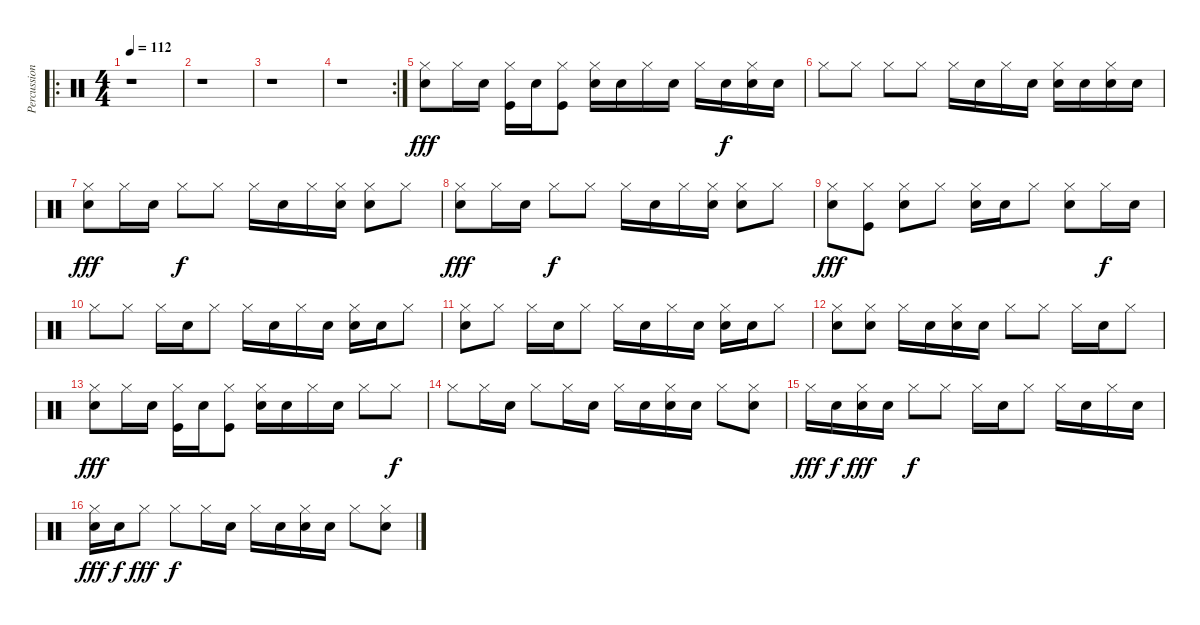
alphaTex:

\track ("Percussion 2" "Percussion") {instrument percussion}
\staff {score}
\articulation defaults
\ro
\ts (4 4)
\tempo 112
\clef neutral
\ks c
r.1{dy fff} |
r.1 |
r.1 |
\rc 2
r.1 |
("Hi-Hat (closed)" "Snare (hit) 2").8 "Hi-Hat (closed)".16 "Snare (hit) 2".16 ("Hi-Hat (closed)" "Kick (hit)").16 "Snare (hit) 2".16 ("Hi-Hat (closed)" "Kick (hit)").8 ("Hi-Hat (closed)" "Snare (hit) 2").16 "Snare (hit) 2".16 "Hi-Hat (closed)".16 "Snare (hit) 2".16 "Hi-Hat (closed)".16 "Snare (hit) 2".16{dy f} ("Hi-Hat (closed)" "Snare (hit) 2").16 "Snare (hit) 2".16 |
"Hi-Hat (closed)".8 "Hi-Hat (closed)".8 "Hi-Hat (closed)".8 "Hi-Hat (closed)".8 "Hi-Hat (closed)".16 "Snare (hit) 2".16 "Hi-Hat (closed)".16 "Snare (hit) 2".16 ("Hi-Hat (closed)" "Snare (hit) 2").16 "Snare (hit) 2".16 ("Hi-Hat (closed)" "Snare (hit) 2").16 "Snare (hit) 2".16 |
("Hi-Hat (closed)" "Snare (hit) 2").8{dy fff} "Hi-Hat (closed)".16 "Snare (hit) 2".16 "Hi-Hat (closed)".8{dy f} "Hi-Hat (closed)".8 "Hi-Hat (closed)".16 "Snare (hit) 2".16 "Hi-Hat (closed)".16 ("Hi-Hat (closed)" "Snare (hit) 2").16 ("Hi-Hat (closed)" "Snare (hit) 2").8 "Hi-Hat (closed)".8 |
("Hi-Hat (closed)" "Snare (hit) 2").8{dy fff} "Hi-Hat (closed)".16 "Snare (hit) 2".16 "Hi-Hat (closed)".8{dy f} "Hi-Hat (closed)".8 "Hi-Hat (closed)".16 "Snare (hit) 2".16 "Hi-Hat (closed)".16 ("Hi-Hat (closed)" "Snare (hit) 2").16 ("Hi-Hat (closed)" "Snare (hit) 2").8 "Hi-Hat (closed)".8 |
("Hi-Hat (closed)" "Snare (hit) 2").8{dy fff} ("Hi-Hat (closed)" "Kick (hit)").8 ("Hi-Hat (closed)" "Snare (hit) 2").8 "Hi-Hat (closed)".8 ("Hi-Hat (closed)" "Snare (hit) 2").16 "Snare (hit) 2".16 "Hi-Hat (closed)".8 ("Hi-Hat (closed)" "Snare (hit) 2").8 "Hi-Hat (closed)".16{dy f} "Snare (hit) 2".16 |
"Hi-Hat (closed)".8 "Hi-Hat (closed)".8 "Hi-Hat (closed)".16 "Snare (hit) 2".16 "Hi-Hat (closed)".8 "Hi-Hat (closed)".16 "Snare (hit) 2".16 "Hi-Hat (closed)".16 "Snare (hit) 2".16 ("Hi-Hat (closed)" "Snare (hit) 2").16 "Snare (hit) 2".16 "Hi-Hat (closed)".8 |
("Hi-Hat (closed)" "Snare (hit) 2").8 "Hi-Hat (closed)".8 "Hi-Hat (closed)".16 "Snare (hit) 2".16 "Hi-Hat (closed)".8 "Hi-Hat (closed)".16 "Snare (hit) 2".16 "Hi-Hat (closed)".16 "Snare (hit) 2".16 ("Hi-Hat (closed)" "Snare (hit) 2").16 "Snare (hit) 2".16 "Hi-Hat (closed)".8 |
("Hi-Hat (closed)" "Snare (hit) 2").8 ("Hi-Hat (closed)" "Snare (hit) 2").8 "Hi-Hat (closed)".16 "Snare (hit) 2".16 ("Hi-Hat (closed)" "Snare (hit) 2").16 "Snare (hit) 2".16 "Hi-Hat (closed)".8 "Hi-Hat (closed)".8 "Hi-Hat (closed)".16 "Snare (hit) 2".16 "Hi-Hat (closed)".8 |
("Hi-Hat (closed)" "Snare (hit) 2").8{dy fff} "Hi-Hat (closed)".16 "Snare (hit) 2".16 ("Hi-Hat (closed)" "Kick (hit)").16 "Snare (hit) 2".16 ("Hi-Hat (closed)" "Kick (hit)").8 ("Hi-Hat (closed)" "Snare (hit) 2").16 "Snare (hit) 2".16 "Hi-Hat (closed)".16 "Snare (hit) 2".16 "Hi-Hat (closed)".8 "Hi-Hat (closed)".8{dy f} |
"Hi-Hat (closed)".8 "Hi-Hat (closed)".16 "Snare (hit) 2".16 "Hi-Hat (closed)".8 "Hi-Hat (closed)".16 "Snare (hit) 2".16 "Hi-Hat (closed)".16 "Snare (hit) 2".16 ("Hi-Hat (closed)" "Snare (hit) 2").16 "Snare (hit) 2".16 "Hi-Hat (closed)".8 ("Hi-Hat (closed)" "Snare (hit) 2").8 |
"Hi-Hat (closed)".16{dy fff} "Snare (hit) 2".16{dy f} ("Hi-Hat (closed)" "Snare (hit) 2").16{dy fff} "Snare (hit) 2".16 "Hi-Hat (closed)".8{dy f} "Hi-Hat (closed)".8 "Hi-Hat (closed)".16 "Snare (hit) 2".16 "Hi-Hat (closed)".8 "Hi-Hat (closed)".16 "Snare (hit) 2".16 "Hi-Hat (closed)".16 "Snare (hit) 2".16 |
("Hi-Hat (closed)" "Snare (hit) 2").16{dy fff} "Snare (hit) 2".16{dy f} "Hi-Hat (closed)".8{dy fff} "Hi-Hat (closed)".8{dy f} "Hi-Hat (closed)".16 "Snare (hit) 2".16 "Hi-Hat (closed)".16 "Snare (hit) 2".16 ("Hi-Hat (closed)" "Snare (hit) 2").16 "Snare (hit) 2".16 "Hi-Hat (closed)".8 ("Hi-Hat (closed)" "Snare (hit) 2").8
